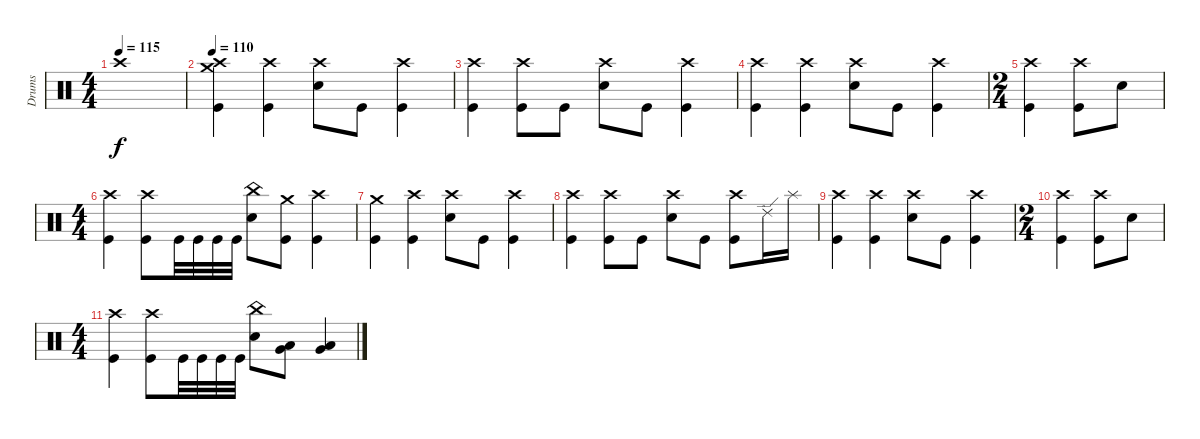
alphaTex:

\track ("Drums" "Drums") {instrument percussion}
\staff {score}
\articulation defaults
\ts (4 4)
\tempo 115
\clef neutral
\ks c "Crash high (hit)"{t}.1{dy f}
|
\tempo 110
("Crash medium (hit)" "Crash high (hit)" "Kick (hit)").4 ("Crash high (hit)" "Kick (hit)").4 ("Crash high (hit)" "Electric Snare (hit)").8 "Kick (hit)".8 ("Crash high (hit)" "Kick (hit)").4 |
("Crash high (hit)" "Kick (hit)").4 ("Crash high (hit)" "Kick (hit)").8 "Kick (hit)".8 ("Crash high (hit)" "Electric Snare (hit)").8 "Kick (hit)".8 ("Crash high (hit)" "Kick (hit)").4 |
("Crash high (hit)" "Kick (hit)").4 ("Crash high (hit)" "Kick (hit)").4 ("Crash high (hit)" "Electric Snare (hit)").8 "Kick (hit)".8 ("Crash high (hit)" "Kick (hit)").4 |
\ts (2 4)
("Crash high (hit)" "Kick (hit)").4 ("Crash high (hit)" "Kick (hit)").8 "Electric Snare (hit)".8 |
\ts (4 4)
("Crash high (hit)" "Kick (hit)").4 ("Crash high (hit)" "Kick (hit)").8 "Kick (hit)".32 "Kick (hit)".32 "Kick (hit)".32 "Kick (hit)".32 ("China (hit)" "Electric Snare (hit)").8 ("Crash medium (hit)" "Kick (hit)").8 ("Crash high (hit)" "Kick (hit)").4 |
("Crash medium (hit)" "Kick (hit)").4 ("Crash high (hit)" "Kick (hit)").4 ("Crash high (hit)" "Electric Snare (hit)").8 "Kick (hit)".8 ("Crash high (hit)" "Kick (hit)").4 |
("Crash high (hit)" "Kick (hit)").4 ("Crash high (hit)" "Kick (hit)").8 "Kick (hit)".8 ("Crash high (hit)" "Electric Snare (hit)").8 "Kick (hit)".8 ("Crash high (hit)" "Kick (hit)").8 "Ride (edge) 2".16 "Splash (hit)".16 |
("Crash high (hit)" "Kick (hit)").4 ("Crash high (hit)" "Kick (hit)").4 ("Crash high (hit)" "Electric Snare (hit)").8 "Kick (hit)".8 ("Crash high (hit)" "Kick (hit)").4 |
\ts (2 4)
("Crash high (hit)" "Kick (hit)").4 ("Crash high (hit)" "Kick (hit)").8 "Electric Snare (hit)".8 |
\ts (4 4)
("Crash high (hit)" "Kick (hit)").4 ("Crash high (hit)" "Kick (hit)").8 "Kick (hit)".32 "Kick (hit)".32 "Kick (hit)".32 "Kick (hit)".32 ("China (hit)" "Electric Snare (hit)").8 ("Low Tom (hit)" "Very Low Tom (hit)").8 ("Low Tom (hit)" "Very Low Tom (hit)").4
